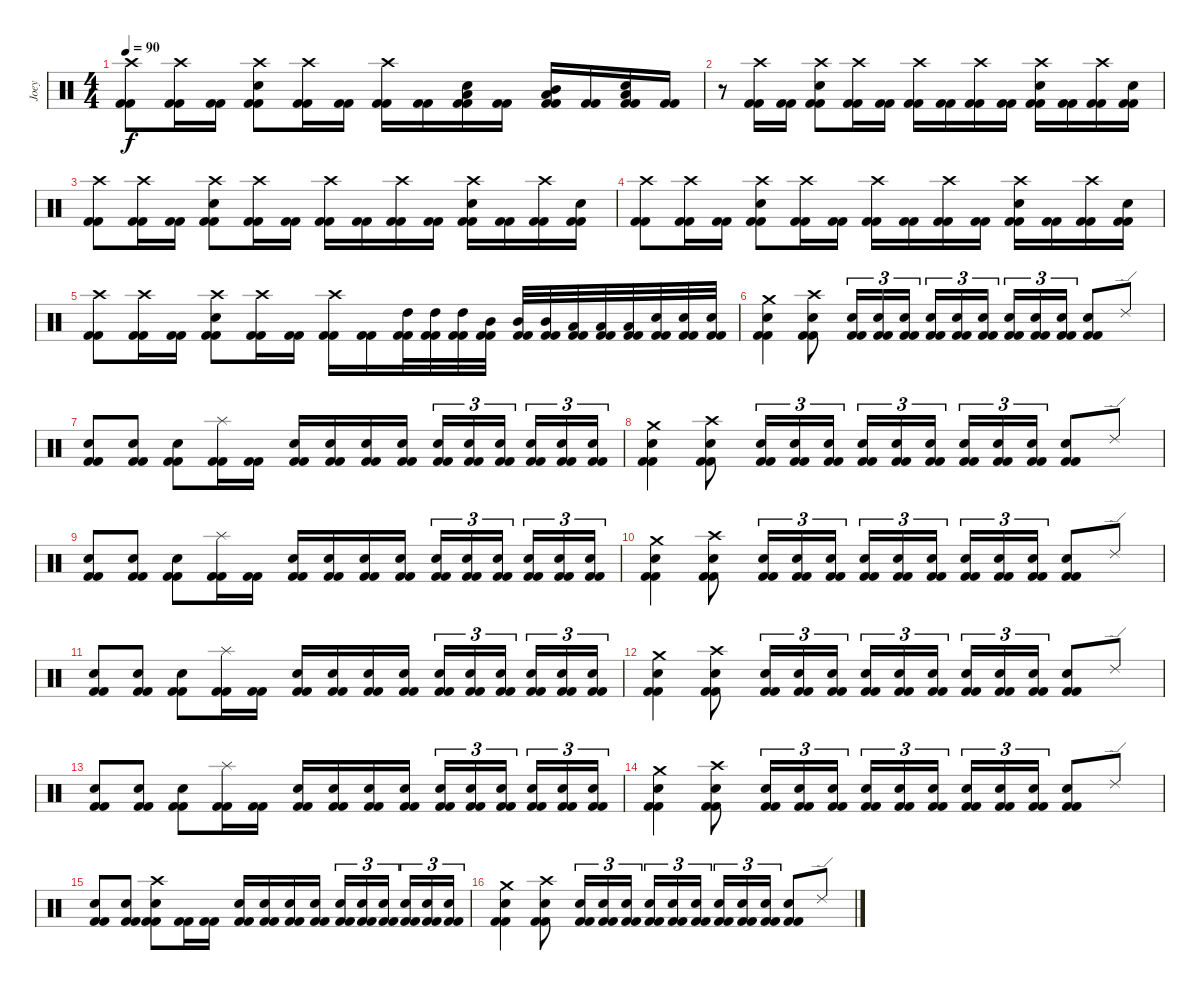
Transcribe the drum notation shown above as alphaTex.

\track ("Joey" "Joey") {instrument percussion}
\staff {score}
\articulation defaults
\ts (4 4)
\tempo 90
\clef neutral
\ks c
("Crash high (hit)" "Kick (hit) 2" "Kick (hit) 2").8{dy f} ("Crash high (hit)" "Kick (hit) 2" "Kick (hit) 2").16 ("Kick (hit) 2" "Kick (hit) 2").16 ("Electric Snare (hit)" "Crash high (hit)" "Kick (hit) 2" "Kick (hit) 2").8 ("Crash high (hit)" "Kick (hit) 2" "Kick (hit) 2").16 ("Kick (hit) 2" "Kick (hit) 2").16 ("Crash high (hit)" "Kick (hit) 2" "Kick (hit) 2").16 ("Kick (hit) 2" "Kick (hit) 2").16 ("Electric Snare (hit)" "Low Tom (hit)" "Kick (hit) 2" "Kick (hit) 2").16 ("Kick (hit) 2" "Kick (hit) 2").16 ("Low Tom (hit)" "Mid Tom (hit)" "Kick (hit) 2" "Kick (hit) 2").16 ("Kick (hit) 2" "Kick (hit) 2").16 ("Electric Snare (hit)" "Low Tom (hit)" "Kick (hit) 2" "Kick (hit) 2").16 ("Kick (hit) 2" "Kick (hit) 2").16 |
r.8 ("Crash high (hit)" "Kick (hit) 2" "Kick (hit) 2").16 ("Kick (hit) 2" "Kick (hit) 2").16 ("Electric Snare (hit)" "Crash high (hit)" "Kick (hit) 2" "Kick (hit) 2").8 ("Crash high (hit)" "Kick (hit) 2" "Kick (hit) 2").16 ("Kick (hit) 2" "Kick (hit) 2").16 ("Crash high (hit)" "Kick (hit) 2" "Kick (hit) 2").16 ("Kick (hit) 2" "Kick (hit) 2").16 ("Crash high (hit)" "Kick (hit) 2" "Kick (hit) 2").16 ("Kick (hit) 2" "Kick (hit) 2").16 ("Electric Snare (hit)" "Crash high (hit)" "Kick (hit) 2" "Kick (hit) 2").16 ("Kick (hit) 2" "Kick (hit) 2").16 ("Crash high (hit)" "Kick (hit) 2" "Kick (hit) 2").16 ("Electric Snare (hit)" "Kick (hit) 2" "Kick (hit) 2").16 |
("Crash high (hit)" "Kick (hit) 2" "Kick (hit) 2").8 ("Crash high (hit)" "Kick (hit) 2" "Kick (hit) 2").16 ("Kick (hit) 2" "Kick (hit) 2").16 ("Electric Snare (hit)" "Crash high (hit)" "Kick (hit) 2" "Kick (hit) 2").8 ("Crash high (hit)" "Kick (hit) 2" "Kick (hit) 2").16 ("Kick (hit) 2" "Kick (hit) 2").16 ("Crash high (hit)" "Kick (hit) 2" "Kick (hit) 2").16 ("Kick (hit) 2" "Kick (hit) 2").16 ("Crash high (hit)" "Kick (hit) 2" "Kick (hit) 2").16 ("Kick (hit) 2" "Kick (hit) 2").16 ("Electric Snare (hit)" "Crash high (hit)" "Kick (hit) 2" "Kick (hit) 2").16 ("Kick (hit) 2" "Kick (hit) 2").16 ("Crash high (hit)" "Kick (hit) 2" "Kick (hit) 2").16 ("Electric Snare (hit)" "Kick (hit) 2" "Kick (hit) 2").16 |
("Crash high (hit)" "Kick (hit) 2" "Kick (hit) 2").8 ("Crash high (hit)" "Kick (hit) 2" "Kick (hit) 2").16 ("Kick (hit) 2" "Kick (hit) 2").16 ("Electric Snare (hit)" "Crash high (hit)" "Kick (hit) 2" "Kick (hit) 2").8 ("Crash high (hit)" "Kick (hit) 2" "Kick (hit) 2").16 ("Kick (hit) 2" "Kick (hit) 2").16 ("Crash high (hit)" "Kick (hit) 2" "Kick (hit) 2").16 ("Kick (hit) 2" "Kick (hit) 2").16 ("Crash high (hit)" "Kick (hit) 2" "Kick (hit) 2").16 ("Kick (hit) 2" "Kick (hit) 2").16 ("Electric Snare (hit)" "Crash high (hit)" "Kick (hit) 2" "Kick (hit) 2").16 ("Kick (hit) 2" "Kick (hit) 2").16 ("Crash high (hit)" "Kick (hit) 2" "Kick (hit) 2").16 ("Electric Snare (hit)" "Kick (hit) 2" "Kick (hit) 2").16 |
("Crash high (hit)" "Kick (hit) 2" "Kick (hit) 2").8 ("Crash high (hit)" "Kick (hit) 2" "Kick (hit) 2").16 ("Kick (hit) 2" "Kick (hit) 2").16 ("Electric Snare (hit)" "Crash high (hit)" "Kick (hit) 2" "Kick (hit) 2").8 ("Crash high (hit)" "Kick (hit) 2" "Kick (hit) 2").16 ("Kick (hit) 2" "Kick (hit) 2").16 ("Crash high (hit)" "Kick (hit) 2" "Kick (hit) 2").16 ("Kick (hit) 2" "Kick (hit) 2").16 ("High Tom (hit)" "Kick (hit) 2" "Kick (hit) 2").32 ("High Tom (hit)" "Kick (hit) 2" "Kick (hit) 2").32 ("High Tom (hit)" "Kick (hit) 2" "Kick (hit) 2").32 ("Mid Tom (hit)" "Kick (hit) 2" "Kick (hit) 2").32 ("Mid Tom (hit)" "Kick (hit) 2" "Kick (hit) 2").32 ("Mid Tom (hit)" "Kick (hit) 2" "Kick (hit) 2").32 ("Low Tom (hit)" "Kick (hit) 2" "Kick (hit) 2").32 ("Low Tom (hit)" "Kick (hit) 2" "Kick (hit) 2").32 ("Low Tom (hit)" "Kick (hit) 2" "Kick (hit) 2").32 ("Electric Snare (hit)" "Kick (hit) 2" "Kick (hit) 2").32 ("Electric Snare (hit)" "Kick (hit) 2" "Kick (hit) 2").32 ("Electric Snare (hit)" "Kick (hit) 2" "Kick (hit) 2").32 |
("Electric Snare (hit)" "Crash medium (hit)" "Kick (hit) 2" "Kick (hit) 2").4 ("Electric Snare (hit)" "Crash high (hit)" "Kick (hit) 2" "Kick (hit) 2").8 ("Electric Snare (hit)" "Kick (hit) 2" "Kick (hit) 2").16{tu (3 2)} ("Electric Snare (hit)" "Kick (hit) 2" "Kick (hit) 2").16{tu (3 2)} ("Electric Snare (hit)" "Kick (hit) 2" "Kick (hit) 2").16{tu (3 2)} ("Electric Snare (hit)" "Kick (hit) 2" "Kick (hit) 2").16{tu (3 2)} ("Electric Snare (hit)" "Kick (hit) 2" "Kick (hit) 2").16{tu (3 2)} ("Electric Snare (hit)" "Kick (hit) 2" "Kick (hit) 2").16{tu (3 2)} ("Electric Snare (hit)" "Kick (hit) 2" "Kick (hit) 2").16{tu (3 2)} ("Electric Snare (hit)" "Kick (hit) 2" "Kick (hit) 2").16{tu (3 2)} ("Electric Snare (hit)" "Kick (hit) 2" "Kick (hit) 2").16{tu (3 2)} ("Electric Snare (hit)" "Kick (hit) 2" "Kick (hit) 2").8 "Ride (edge) 2".8 |
("Electric Snare (hit)" "Kick (hit) 2" "Kick (hit) 2").8 ("Electric Snare (hit)" "Kick (hit) 2" "Kick (hit) 2").8 ("Electric Snare (hit)" "Kick (hit) 2" "Kick (hit) 2").8 ("Splash (hit)" "Kick (hit) 2" "Kick (hit) 2").16 ("Kick (hit) 2" "Kick (hit) 2").16 ("Electric Snare (hit)" "Kick (hit) 2" "Kick (hit) 2").16 ("Electric Snare (hit)" "Kick (hit) 2" "Kick (hit) 2").16 ("Electric Snare (hit)" "Kick (hit) 2" "Kick (hit) 2").16 ("Electric Snare (hit)" "Kick (hit) 2" "Kick (hit) 2").16 ("Electric Snare (hit)" "Kick (hit) 2" "Kick (hit) 2").16{tu (3 2)} ("Electric Snare (hit)" "Kick (hit) 2" "Kick (hit) 2").16{tu (3 2)} ("Electric Snare (hit)" "Kick (hit) 2" "Kick (hit) 2").16{tu (3 2)} ("Electric Snare (hit)" "Kick (hit) 2" "Kick (hit) 2").16{tu (3 2)} ("Electric Snare (hit)" "Kick (hit) 2" "Kick (hit) 2").16{tu (3 2)} ("Electric Snare (hit)" "Kick (hit) 2" "Kick (hit) 2").16{tu (3 2)} |
("Electric Snare (hit)" "Crash medium (hit)" "Kick (hit) 2" "Kick (hit) 2").4 ("Electric Snare (hit)" "Crash high (hit)" "Kick (hit) 2" "Kick (hit) 2").8 ("Electric Snare (hit)" "Kick (hit) 2" "Kick (hit) 2").16{tu (3 2)} ("Electric Snare (hit)" "Kick (hit) 2" "Kick (hit) 2").16{tu (3 2)} ("Electric Snare (hit)" "Kick (hit) 2" "Kick (hit) 2").16{tu (3 2)} ("Electric Snare (hit)" "Kick (hit) 2" "Kick (hit) 2").16{tu (3 2)} ("Electric Snare (hit)" "Kick (hit) 2" "Kick (hit) 2").16{tu (3 2)} ("Electric Snare (hit)" "Kick (hit) 2" "Kick (hit) 2").16{tu (3 2)} ("Electric Snare (hit)" "Kick (hit) 2" "Kick (hit) 2").16{tu (3 2)} ("Electric Snare (hit)" "Kick (hit) 2" "Kick (hit) 2").16{tu (3 2)} ("Electric Snare (hit)" "Kick (hit) 2" "Kick (hit) 2").16{tu (3 2)} ("Electric Snare (hit)" "Kick (hit) 2" "Kick (hit) 2").8 "Ride (edge) 2".8 |
("Electric Snare (hit)" "Kick (hit) 2" "Kick (hit) 2").8 ("Electric Snare (hit)" "Kick (hit) 2" "Kick (hit) 2").8 ("Electric Snare (hit)" "Kick (hit) 2" "Kick (hit) 2").8 ("Splash (hit)" "Kick (hit) 2" "Kick (hit) 2").16 ("Kick (hit) 2" "Kick (hit) 2").16 ("Electric Snare (hit)" "Kick (hit) 2" "Kick (hit) 2").16 ("Electric Snare (hit)" "Kick (hit) 2" "Kick (hit) 2").16 ("Electric Snare (hit)" "Kick (hit) 2" "Kick (hit) 2").16 ("Electric Snare (hit)" "Kick (hit) 2" "Kick (hit) 2").16 ("Electric Snare (hit)" "Kick (hit) 2" "Kick (hit) 2").16{tu (3 2)} ("Electric Snare (hit)" "Kick (hit) 2" "Kick (hit) 2").16{tu (3 2)} ("Electric Snare (hit)" "Kick (hit) 2" "Kick (hit) 2").16{tu (3 2)} ("Electric Snare (hit)" "Kick (hit) 2" "Kick (hit) 2").16{tu (3 2)} ("Electric Snare (hit)" "Kick (hit) 2" "Kick (hit) 2").16{tu (3 2)} ("Electric Snare (hit)" "Kick (hit) 2" "Kick (hit) 2").16{tu (3 2)} |
("Electric Snare (hit)" "Crash medium (hit)" "Kick (hit) 2" "Kick (hit) 2").4 ("Electric Snare (hit)" "Crash high (hit)" "Kick (hit) 2" "Kick (hit) 2").8 ("Electric Snare (hit)" "Kick (hit) 2" "Kick (hit) 2").16{tu (3 2)} ("Electric Snare (hit)" "Kick (hit) 2" "Kick (hit) 2").16{tu (3 2)} ("Electric Snare (hit)" "Kick (hit) 2" "Kick (hit) 2").16{tu (3 2)} ("Electric Snare (hit)" "Kick (hit) 2" "Kick (hit) 2").16{tu (3 2)} ("Electric Snare (hit)" "Kick (hit) 2" "Kick (hit) 2").16{tu (3 2)} ("Electric Snare (hit)" "Kick (hit) 2" "Kick (hit) 2").16{tu (3 2)} ("Electric Snare (hit)" "Kick (hit) 2" "Kick (hit) 2").16{tu (3 2)} ("Electric Snare (hit)" "Kick (hit) 2" "Kick (hit) 2").16{tu (3 2)} ("Electric Snare (hit)" "Kick (hit) 2" "Kick (hit) 2").16{tu (3 2)} ("Electric Snare (hit)" "Kick (hit) 2" "Kick (hit) 2").8 "Ride (edge) 2".8 |
("Electric Snare (hit)" "Kick (hit) 2" "Kick (hit) 2").8 ("Electric Snare (hit)" "Kick (hit) 2" "Kick (hit) 2").8 ("Electric Snare (hit)" "Kick (hit) 2" "Kick (hit) 2").8 ("Splash (hit)" "Kick (hit) 2" "Kick (hit) 2").16 ("Kick (hit) 2" "Kick (hit) 2").16 ("Electric Snare (hit)" "Kick (hit) 2" "Kick (hit) 2").16 ("Electric Snare (hit)" "Kick (hit) 2" "Kick (hit) 2").16 ("Electric Snare (hit)" "Kick (hit) 2" "Kick (hit) 2").16 ("Electric Snare (hit)" "Kick (hit) 2" "Kick (hit) 2").16 ("Electric Snare (hit)" "Kick (hit) 2" "Kick (hit) 2").16{tu (3 2)} ("Electric Snare (hit)" "Kick (hit) 2" "Kick (hit) 2").16{tu (3 2)} ("Electric Snare (hit)" "Kick (hit) 2" "Kick (hit) 2").16{tu (3 2)} ("Electric Snare (hit)" "Kick (hit) 2" "Kick (hit) 2").16{tu (3 2)} ("Electric Snare (hit)" "Kick (hit) 2" "Kick (hit) 2").16{tu (3 2)} ("Electric Snare (hit)" "Kick (hit) 2" "Kick (hit) 2").16{tu (3 2)} |
("Electric Snare (hit)" "Crash medium (hit)" "Kick (hit) 2" "Kick (hit) 2").4 ("Electric Snare (hit)" "Crash high (hit)" "Kick (hit) 2" "Kick (hit) 2").8 ("Electric Snare (hit)" "Kick (hit) 2" "Kick (hit) 2").16{tu (3 2)} ("Electric Snare (hit)" "Kick (hit) 2" "Kick (hit) 2").16{tu (3 2)} ("Electric Snare (hit)" "Kick (hit) 2" "Kick (hit) 2").16{tu (3 2)} ("Electric Snare (hit)" "Kick (hit) 2" "Kick (hit) 2").16{tu (3 2)} ("Electric Snare (hit)" "Kick (hit) 2" "Kick (hit) 2").16{tu (3 2)} ("Electric Snare (hit)" "Kick (hit) 2" "Kick (hit) 2").16{tu (3 2)} ("Electric Snare (hit)" "Kick (hit) 2" "Kick (hit) 2").16{tu (3 2)} ("Electric Snare (hit)" "Kick (hit) 2" "Kick (hit) 2").16{tu (3 2)} ("Electric Snare (hit)" "Kick (hit) 2" "Kick (hit) 2").16{tu (3 2)} ("Electric Snare (hit)" "Kick (hit) 2" "Kick (hit) 2").8 "Ride (edge) 2".8 |
("Electric Snare (hit)" "Kick (hit) 2" "Kick (hit) 2").8 ("Electric Snare (hit)" "Kick (hit) 2" "Kick (hit) 2").8 ("Electric Snare (hit)" "Kick (hit) 2" "Kick (hit) 2").8 ("Splash (hit)" "Kick (hit) 2" "Kick (hit) 2").16 ("Kick (hit) 2" "Kick (hit) 2").16 ("Electric Snare (hit)" "Kick (hit) 2" "Kick (hit) 2").16 ("Electric Snare (hit)" "Kick (hit) 2" "Kick (hit) 2").16 ("Electric Snare (hit)" "Kick (hit) 2" "Kick (hit) 2").16 ("Electric Snare (hit)" "Kick (hit) 2" "Kick (hit) 2").16 ("Electric Snare (hit)" "Kick (hit) 2" "Kick (hit) 2").16{tu (3 2)} ("Electric Snare (hit)" "Kick (hit) 2" "Kick (hit) 2").16{tu (3 2)} ("Electric Snare (hit)" "Kick (hit) 2" "Kick (hit) 2").16{tu (3 2)} ("Electric Snare (hit)" "Kick (hit) 2" "Kick (hit) 2").16{tu (3 2)} ("Electric Snare (hit)" "Kick (hit) 2" "Kick (hit) 2").16{tu (3 2)} ("Electric Snare (hit)" "Kick (hit) 2" "Kick (hit) 2").16{tu (3 2)} |
("Electric Snare (hit)" "Crash medium (hit)" "Kick (hit) 2" "Kick (hit) 2").4 ("Electric Snare (hit)" "Crash high (hit)" "Kick (hit) 2" "Kick (hit) 2").8 ("Electric Snare (hit)" "Kick (hit) 2" "Kick (hit) 2").16{tu (3 2)} ("Electric Snare (hit)" "Kick (hit) 2" "Kick (hit) 2").16{tu (3 2)} ("Electric Snare (hit)" "Kick (hit) 2" "Kick (hit) 2").16{tu (3 2)} ("Electric Snare (hit)" "Kick (hit) 2" "Kick (hit) 2").16{tu (3 2)} ("Electric Snare (hit)" "Kick (hit) 2" "Kick (hit) 2").16{tu (3 2)} ("Electric Snare (hit)" "Kick (hit) 2" "Kick (hit) 2").16{tu (3 2)} ("Electric Snare (hit)" "Kick (hit) 2" "Kick (hit) 2").16{tu (3 2)} ("Electric Snare (hit)" "Kick (hit) 2" "Kick (hit) 2").16{tu (3 2)} ("Electric Snare (hit)" "Kick (hit) 2" "Kick (hit) 2").16{tu (3 2)} ("Electric Snare (hit)" "Kick (hit) 2" "Kick (hit) 2").8 "Ride (edge) 2".8 |
("Electric Snare (hit)" "Kick (hit) 2" "Kick (hit) 2").8 ("Electric Snare (hit)" "Kick (hit) 2" "Kick (hit) 2").8 ("Electric Snare (hit)" "Crash high (hit)" "Kick (hit) 2" "Kick (hit) 2").8 ("Kick (hit) 2" "Kick (hit) 2").16 ("Kick (hit) 2" "Kick (hit) 2").16 ("Electric Snare (hit)" "Kick (hit) 2" "Kick (hit) 2").16 ("Electric Snare (hit)" "Kick (hit) 2" "Kick (hit) 2").16 ("Electric Snare (hit)" "Kick (hit) 2" "Kick (hit) 2").16 ("Electric Snare (hit)" "Kick (hit) 2" "Kick (hit) 2").16 ("Electric Snare (hit)" "Kick (hit) 2" "Kick (hit) 2").16{tu (3 2)} ("Electric Snare (hit)" "Kick (hit) 2" "Kick (hit) 2").16{tu (3 2)} ("Electric Snare (hit)" "Kick (hit) 2" "Kick (hit) 2").16{tu (3 2)} ("Electric Snare (hit)" "Kick (hit) 2" "Kick (hit) 2").16{tu (3 2)} ("Electric Snare (hit)" "Kick (hit) 2" "Kick (hit) 2").16{tu (3 2)} ("Electric Snare (hit)" "Kick (hit) 2" "Kick (hit) 2").16{tu (3 2)} |
("Electric Snare (hit)" "Crash medium (hit)" "Kick (hit) 2" "Kick (hit) 2").4 ("Electric Snare (hit)" "Crash high (hit)" "Kick (hit) 2" "Kick (hit) 2").8 ("Electric Snare (hit)" "Kick (hit) 2" "Kick (hit) 2").16{tu (3 2)} ("Electric Snare (hit)" "Kick (hit) 2" "Kick (hit) 2").16{tu (3 2)} ("Electric Snare (hit)" "Kick (hit) 2" "Kick (hit) 2").16{tu (3 2)} ("Electric Snare (hit)" "Kick (hit) 2" "Kick (hit) 2").16{tu (3 2)} ("Electric Snare (hit)" "Kick (hit) 2" "Kick (hit) 2").16{tu (3 2)} ("Electric Snare (hit)" "Kick (hit) 2" "Kick (hit) 2").16{tu (3 2)} ("Electric Snare (hit)" "Kick (hit) 2" "Kick (hit) 2").16{tu (3 2)} ("Electric Snare (hit)" "Kick (hit) 2" "Kick (hit) 2").16{tu (3 2)} ("Electric Snare (hit)" "Kick (hit) 2" "Kick (hit) 2").16{tu (3 2)} ("Electric Snare (hit)" "Kick (hit) 2" "Kick (hit) 2").8 "Ride (edge) 2".8
